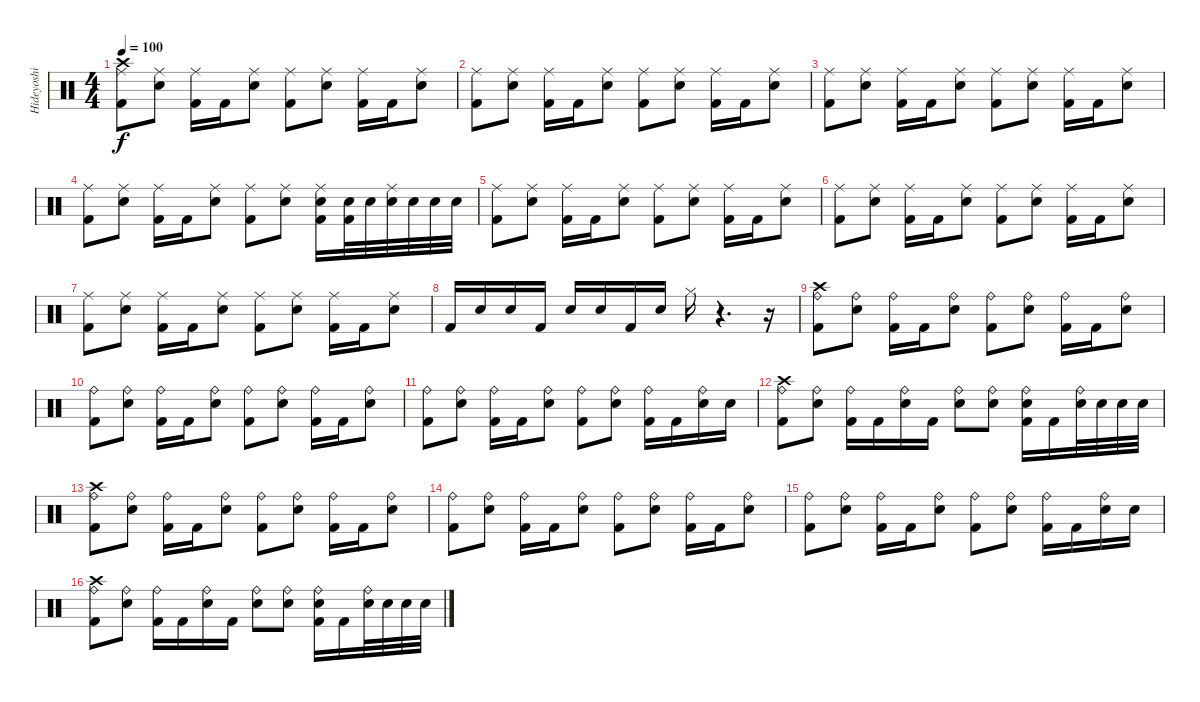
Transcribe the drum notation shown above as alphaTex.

\track ("Hideyoshi" "Hideyoshi") {instrument percussion}
\staff {score}
\articulation defaults
\ts (4 4)
\tempo 100
\clef neutral
\ks c
("Ride (middle)" "Kick (hit) 2" "Crash high (hit)").8{dy f} ("Snare (hit) 2" "Ride (middle)").8 ("Kick (hit) 2" "Ride (middle)").16 "Kick (hit) 2".16 ("Snare (hit) 2" "Ride (middle)").8 ("Kick (hit) 2" "Ride (middle)").8 ("Snare (hit) 2" "Ride (middle)").8 ("Kick (hit) 2" "Ride (middle)").16 "Kick (hit) 2".16 ("Snare (hit) 2" "Ride (middle)").8 |
("Ride (middle)" "Kick (hit) 2").8 ("Snare (hit) 2" "Ride (middle)").8 ("Kick (hit) 2" "Ride (middle)").16 "Kick (hit) 2".16 ("Snare (hit) 2" "Ride (middle)").8 ("Ride (middle)" "Kick (hit) 2").8 ("Snare (hit) 2" "Ride (middle)").8 ("Kick (hit) 2" "Ride (middle)").16 "Kick (hit) 2".16 ("Snare (hit) 2" "Ride (middle)").8 |
("Kick (hit) 2" "Ride (middle)").8 ("Snare (hit) 2" "Ride (middle)").8 ("Kick (hit) 2" "Ride (middle)").16 "Kick (hit) 2".16 ("Ride (middle)" "Snare (hit) 2").8 ("Ride (middle)" "Kick (hit) 2").8 ("Snare (hit) 2" "Ride (middle)").8 ("Kick (hit) 2" "Ride (middle)").16 "Kick (hit) 2".16 ("Snare (hit) 2" "Ride (middle)").8 |
("Ride (middle)" "Kick (hit) 2").8 ("Snare (hit) 2" "Ride (middle)").8 ("Kick (hit) 2" "Ride (middle)").16 "Kick (hit) 2".16 ("Snare (hit) 2" "Ride (middle)").8 ("Kick (hit) 2" "Ride (middle)").8 ("Snare (hit) 2" "Ride (middle)").8 ("Ride (middle)" "Snare (hit) 2" "Kick (hit) 2").16 ("Snare (hit) 2" "Kick (hit) 2").32 "Snare (hit) 2".32 ("Ride (middle)" "Snare (hit) 2").32 "Snare (hit) 2".32 "Snare (hit) 2".32 "Snare (hit) 2".32 |
("Ride (middle)" "Kick (hit) 2").8 ("Snare (hit) 2" "Ride (middle)").8 ("Kick (hit) 2" "Ride (middle)").16 "Kick (hit) 2".16 ("Snare (hit) 2" "Ride (middle)").8 ("Kick (hit) 2" "Ride (middle)").8 ("Snare (hit) 2" "Ride (middle)").8 ("Kick (hit) 2" "Ride (middle)").16 "Kick (hit) 2".16 ("Snare (hit) 2" "Ride (middle)").8 |
("Kick (hit) 2" "Ride (middle)").8 ("Snare (hit) 2" "Ride (middle)").8 ("Kick (hit) 2" "Ride (middle)").16 "Kick (hit) 2".16 ("Ride (middle)" "Snare (hit) 2").8 ("Kick (hit) 2" "Ride (middle)").8 ("Snare (hit) 2" "Ride (middle)").8 ("Kick (hit) 2" "Ride (middle)").16 "Kick (hit) 2".16 ("Ride (middle)" "Snare (hit) 2").8 |
("Ride (middle)" "Kick (hit) 2").8 ("Snare (hit) 2" "Ride (middle)").8 ("Kick (hit) 2" "Ride (middle)").16 "Kick (hit) 2".16 ("Snare (hit) 2" "Ride (middle)").8 ("Kick (hit) 2" "Ride (middle)").8 ("Snare (hit) 2" "Ride (middle)").8 ("Kick (hit) 2" "Ride (middle)").16 "Kick (hit) 2".16 ("Snare (hit) 2" "Ride (middle)").8 |
"Kick (hit) 2".16 "Snare (hit) 2".16 "Snare (hit) 2".16 "Kick (hit) 2".16 "Snare (hit) 2".16 "Snare (hit) 2".16 "Kick (hit) 2".16 "Snare (hit) 2".16 "Hi-Hat (closed)".16 r.4{d} r.16 |
("Crash high (hit)" "Kick (hit) 2" "Ride (bell)").8 ("Snare (hit) 2" "Ride (bell)").8 ("Kick (hit) 2" "Ride (bell)").16 "Kick (hit) 2".16 ("Snare (hit) 2" "Ride (bell)").8 ("Kick (hit) 2" "Ride (bell)").8 ("Snare (hit) 2" "Ride (bell)").8 ("Kick (hit) 2" "Ride (bell)").16 "Kick (hit) 2".16 ("Snare (hit) 2" "Ride (bell)").8 |
("Kick (hit) 2" "Ride (bell)").8 ("Snare (hit) 2" "Ride (bell)").8 ("Kick (hit) 2" "Ride (bell)").16 "Kick (hit) 2".16 ("Snare (hit) 2" "Ride (bell)").8 ("Kick (hit) 2" "Ride (bell)").8 ("Snare (hit) 2" "Ride (bell)").8 ("Kick (hit) 2" "Ride (bell)").16 "Kick (hit) 2".16 ("Snare (hit) 2" "Ride (bell)").8 |
("Kick (hit) 2" "Ride (bell)").8 ("Snare (hit) 2" "Ride (bell)").8 ("Kick (hit) 2" "Ride (bell)").16 "Kick (hit) 2".16 ("Snare (hit) 2" "Ride (bell)").8 ("Kick (hit) 2" "Ride (bell)").8 ("Snare (hit) 2" "Ride (bell)").8 ("Kick (hit) 2" "Ride (bell)").16 "Kick (hit) 2".16 ("Snare (hit) 2" "Ride (bell)").16 "Snare (hit) 2".16 |
("Crash high (hit)" "Kick (hit) 2" "Ride (bell)").8 ("Snare (hit) 2" "Ride (bell)").8 ("Kick (hit) 2" "Ride (bell)").16 "Kick (hit) 2".16 ("Snare (hit) 2" "Ride (bell)").16 "Kick (hit) 2".16 ("Snare (hit) 2" "Ride (bell)").8 ("Snare (hit) 2" "Ride (bell)").8 ("Snare (hit) 2" "Kick (hit) 2" "Ride (bell)").16 "Kick (hit) 2".16 ("Snare (hit) 2" "Ride (bell)").32 "Snare (hit) 2".32 "Snare (hit) 2".32 "Snare (hit) 2".32 |
("Crash high (hit)" "Kick (hit) 2" "Ride (bell)").8 ("Snare (hit) 2" "Ride (bell)").8 ("Kick (hit) 2" "Ride (bell)").16 "Kick (hit) 2".16 ("Snare (hit) 2" "Ride (bell)").8 ("Kick (hit) 2" "Ride (bell)").8 ("Snare (hit) 2" "Ride (bell)").8 ("Kick (hit) 2" "Ride (bell)").16 "Kick (hit) 2".16 ("Snare (hit) 2" "Ride (bell)").8 |
("Kick (hit) 2" "Ride (bell)").8 ("Snare (hit) 2" "Ride (bell)").8 ("Kick (hit) 2" "Ride (bell)").16 "Kick (hit) 2".16 ("Snare (hit) 2" "Ride (bell)").8 ("Kick (hit) 2" "Ride (bell)").8 ("Snare (hit) 2" "Ride (bell)").8 ("Kick (hit) 2" "Ride (bell)").16 "Kick (hit) 2".16 ("Snare (hit) 2" "Ride (bell)").8 |
("Kick (hit) 2" "Ride (bell)").8 ("Snare (hit) 2" "Ride (bell)").8 ("Kick (hit) 2" "Ride (bell)").16 "Kick (hit) 2".16 ("Snare (hit) 2" "Ride (bell)").8 ("Kick (hit) 2" "Ride (bell)").8 ("Snare (hit) 2" "Ride (bell)").8 ("Kick (hit) 2" "Ride (bell)").16 "Kick (hit) 2".16 ("Snare (hit) 2" "Ride (bell)").16 "Snare (hit) 2".16 |
("Crash high (hit)" "Ride (bell)" "Kick (hit) 2").8 ("Snare (hit) 2" "Ride (bell)").8 ("Kick (hit) 2" "Ride (bell)").16 "Kick (hit) 2".16 ("Snare (hit) 2" "Ride (bell)").16 "Kick (hit) 2".16 ("Snare (hit) 2" "Ride (bell)").8 ("Snare (hit) 2" "Ride (bell)").8 ("Snare (hit) 2" "Kick (hit) 2" "Ride (bell)").16 "Kick (hit) 2".16 ("Snare (hit) 2" "Ride (bell)").32 "Snare (hit) 2".32 "Snare (hit) 2".32 "Snare (hit) 2".32
